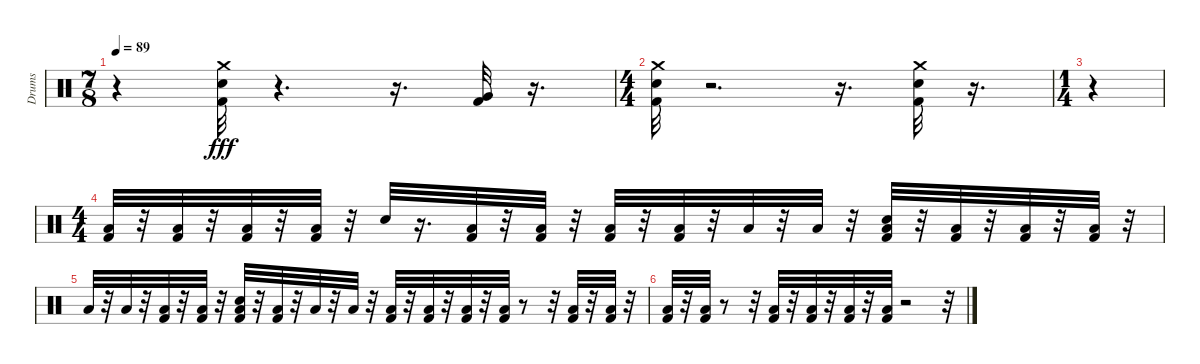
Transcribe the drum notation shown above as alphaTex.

\track ("Drums" "Drums") {instrument percussion}
\staff {score}
\articulation defaults
\ts (7 8)
\tempo 89
\clef neutral
\ks c
r.4{dy fff} ("Crash medium (hit)" "Kick (hit) 2" "Electric Snare (hit)").32 r.4{d} r.16{d} ("Very Low Tom (hit)" "Kick (hit) 2").32 r.16{d} |
\ts (4 4)
("Crash medium (hit)" "Kick (hit) 2" "Electric Snare (hit)").32 r.2{d} r.16{d} ("Kick (hit) 2" "Crash medium (hit)" "Electric Snare (hit)").32 r.16{d} |
\ts (1 4)
r.4 |
\ts (4 4)
("Low Tom (hit)" "Kick (hit) 2").32 r.32 ("Low Tom (hit)" "Kick (hit) 2").32 r.32 ("Low Tom (hit)" "Kick (hit) 2").32 r.32 ("Low Tom (hit)" "Kick (hit) 2").32 r.32 "Electric Snare (hit)".32 r.16{d} ("Low Tom (hit)" "Kick (hit) 2").32 r.32 ("Low Tom (hit)" "Kick (hit) 2").32 r.32 ("Low Tom (hit)" "Kick (hit) 2").32 r.32 ("Low Tom (hit)" "Kick (hit) 2").32 r.32 "Low Tom (hit)".32 r.32 "Low Tom (hit)".32 r.32 ("Low Tom (hit)" "Electric Snare (hit)" "Kick (hit) 2").32 r.32 ("Kick (hit) 2" "Low Tom (hit)").32 r.32 ("Kick (hit) 2" "Low Tom (hit)").32 r.32 ("Kick (hit) 2" "Low Tom (hit)").32 r.32 |
"Low Tom (hit)".32 r.32 "Low Tom (hit)".32 r.32 ("Low Tom (hit)" "Kick (hit) 2").32 r.32 ("Low Tom (hit)" "Kick (hit) 2").32 r.32 ("Low Tom (hit)" "Electric Snare (hit)" "Kick (hit) 2").32 r.32 ("Kick (hit) 2" "Low Tom (hit)").32 r.32 "Low Tom (hit)".32 r.32 "Low Tom (hit)".32 r.32 ("Low Tom (hit)" "Kick (hit) 2").32 r.32 ("Low Tom (hit)" "Kick (hit) 2").32 r.32 ("Low Tom (hit)" "Kick (hit) 2").32 r.32 ("Low Tom (hit)" "Kick (hit) 2").32 r.8 r.32 ("Low Tom (hit)" "Kick (hit) 2").32 r.32 ("Low Tom (hit)" "Kick (hit) 2").32 r.32 |
("Low Tom (hit)" "Kick (hit) 2").32 r.32 ("Low Tom (hit)" "Kick (hit) 2").32 r.8 r.32 ("Low Tom (hit)" "Kick (hit) 2").32 r.32 ("Low Tom (hit)" "Kick (hit) 2").32 r.32 ("Low Tom (hit)" "Kick (hit) 2").32 r.32 ("Low Tom (hit)" "Kick (hit) 2").32 r.2 r.32
